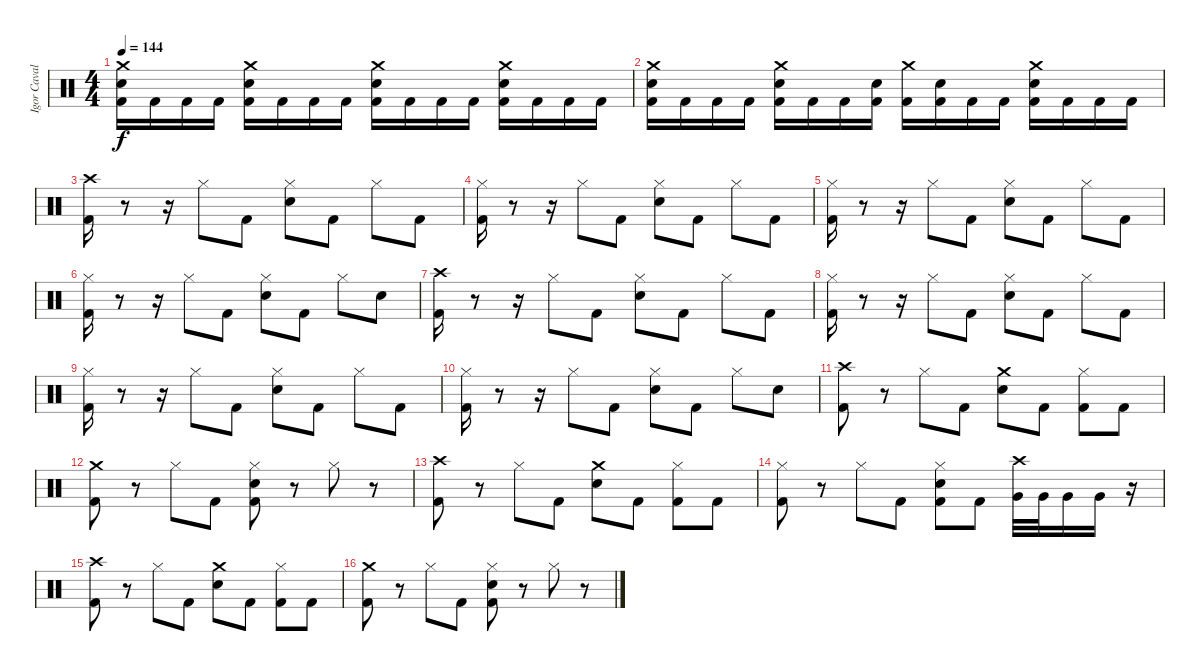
\track ("Igor Cavalera" "Igor Caval") {instrument percussion}
\staff {score}
\articulation defaults
\ts (4 4)
\tempo 144
\clef neutral
\ks c
("Kick (hit) 2" "Snare (hit) 2" "Crash medium (hit)").16{dy f} "Kick (hit) 2".16 "Kick (hit) 2".16 "Kick (hit) 2".16 ("Kick (hit) 2" "Snare (hit) 2" "Crash medium (hit)").16 "Kick (hit) 2".16 "Kick (hit) 2".16 "Kick (hit) 2".16 ("Kick (hit) 2" "Snare (hit) 2" "Crash medium (hit)").16 "Kick (hit) 2".16 "Kick (hit) 2".16 "Kick (hit) 2".16 ("Kick (hit) 2" "Snare (hit) 2" "Crash medium (hit)").16 "Kick (hit) 2".16 "Kick (hit) 2".16 "Kick (hit) 2".16 |
("Kick (hit) 2" "Snare (hit) 2" "Crash medium (hit)").16 "Kick (hit) 2".16 "Kick (hit) 2".16 "Kick (hit) 2".16 ("Kick (hit) 2" "Snare (hit) 2" "Crash medium (hit)").16 "Kick (hit) 2".16 "Kick (hit) 2".16 ("Kick (hit) 2" "Snare (hit) 2").16 ("Kick (hit) 2" "Crash medium (hit)").16 ("Kick (hit) 2" "Snare (hit) 2").16 "Kick (hit) 2".16 "Kick (hit) 2".16 ("Kick (hit) 2" "Snare (hit) 2" "Crash medium (hit)").16 "Kick (hit) 2".16 "Kick (hit) 2".16 "Kick (hit) 2".16 |
("Kick (hit) 2" "Crash high (hit)").16 r.8 r.16 "Hi-Hat (closed)".8 "Kick (hit) 2".8 ("Snare (hit) 2" "Hi-Hat (closed)").8 "Kick (hit) 2".8 "Hi-Hat (closed)".8 "Kick (hit) 2".8 |
("Kick (hit) 2" "Hi-Hat (closed)").16 r.8 r.16 "Hi-Hat (closed)".8 "Kick (hit) 2".8 ("Snare (hit) 2" "Hi-Hat (closed)").8 "Kick (hit) 2".8 "Hi-Hat (closed)".8 "Kick (hit) 2".8 |
("Kick (hit) 2" "Hi-Hat (closed)").16 r.8 r.16 "Hi-Hat (closed)".8 "Kick (hit) 2".8 ("Snare (hit) 2" "Hi-Hat (closed)").8 "Kick (hit) 2".8 "Hi-Hat (closed)".8 "Kick (hit) 2".8 |
("Kick (hit) 2" "Hi-Hat (closed)").16 r.8 r.16 "Hi-Hat (closed)".8 "Kick (hit) 2".8 ("Snare (hit) 2" "Hi-Hat (closed)").8 "Kick (hit) 2".8 "Hi-Hat (closed)".8 "Snare (hit) 2".8 |
("Kick (hit) 2" "Crash high (hit)").16 r.8 r.16 "Hi-Hat (closed)".8 "Kick (hit) 2".8 ("Snare (hit) 2" "Hi-Hat (closed)").8 "Kick (hit) 2".8 "Hi-Hat (closed)".8 "Kick (hit) 2".8 |
("Kick (hit) 2" "Hi-Hat (closed)").16 r.8 r.16 "Hi-Hat (closed)".8 "Kick (hit) 2".8 ("Snare (hit) 2" "Hi-Hat (closed)").8 "Kick (hit) 2".8 "Hi-Hat (closed)".8 "Kick (hit) 2".8 |
("Kick (hit) 2" "Hi-Hat (closed)").16 r.8 r.16 "Hi-Hat (closed)".8 "Kick (hit) 2".8 ("Snare (hit) 2" "Hi-Hat (closed)").8 "Kick (hit) 2".8 "Hi-Hat (closed)".8 "Kick (hit) 2".8 |
("Kick (hit) 2" "Hi-Hat (closed)").16 r.8 r.16 "Hi-Hat (closed)".8 "Kick (hit) 2".8 ("Snare (hit) 2" "Hi-Hat (closed)").8 "Kick (hit) 2".8 "Hi-Hat (closed)".8 "Snare (hit) 2".8 |
("Kick (hit) 2" "Crash high (hit)").8 r.8 "Hi-Hat (closed)".8 "Kick (hit) 2".8 ("Snare (hit) 2" "Crash medium (hit)").8 "Kick (hit) 2".8 ("Hi-Hat (closed)" "Kick (hit) 2").8 "Kick (hit) 2".8 |
("Kick (hit) 2" "Crash medium (hit)").8 r.8 "Hi-Hat (closed)".8 "Kick (hit) 2".8 ("Kick (hit) 2" "Hi-Hat (closed)" "Snare (hit) 2").8 r.8 "Hi-Hat (closed)".8 r.8 |
("Kick (hit) 2" "Crash high (hit)").8 r.8 "Hi-Hat (closed)".8 "Kick (hit) 2".8 ("Snare (hit) 2" "Crash medium (hit)").8 "Kick (hit) 2".8 ("Hi-Hat (closed)" "Kick (hit) 2").8 "Kick (hit) 2".8 |
("Kick (hit) 2" "Hi-Hat (closed)").8 r.8 "Hi-Hat (closed)".8 "Kick (hit) 2".8 ("Kick (hit) 2" "Hi-Hat (closed)" "Snare (hit) 2").8 "Kick (hit) 2".8 ("Crash high (hit)" "Very Low Tom (hit)").32 "Very Low Tom (hit)".32 "Very Low Tom (hit)".16 "Very Low Tom (hit)".16 r.16 |
("Kick (hit) 2" "Crash high (hit)").8 r.8 "Hi-Hat (closed)".8 "Kick (hit) 2".8 ("Snare (hit) 2" "Crash medium (hit)").8 "Kick (hit) 2".8 ("Hi-Hat (closed)" "Kick (hit) 2").8 "Kick (hit) 2".8 |
("Kick (hit) 2" "Crash medium (hit)").8 r.8 "Hi-Hat (closed)".8 "Kick (hit) 2".8 ("Kick (hit) 2" "Hi-Hat (closed)" "Snare (hit) 2").8 r.8 "Hi-Hat (closed)".8 r.8
